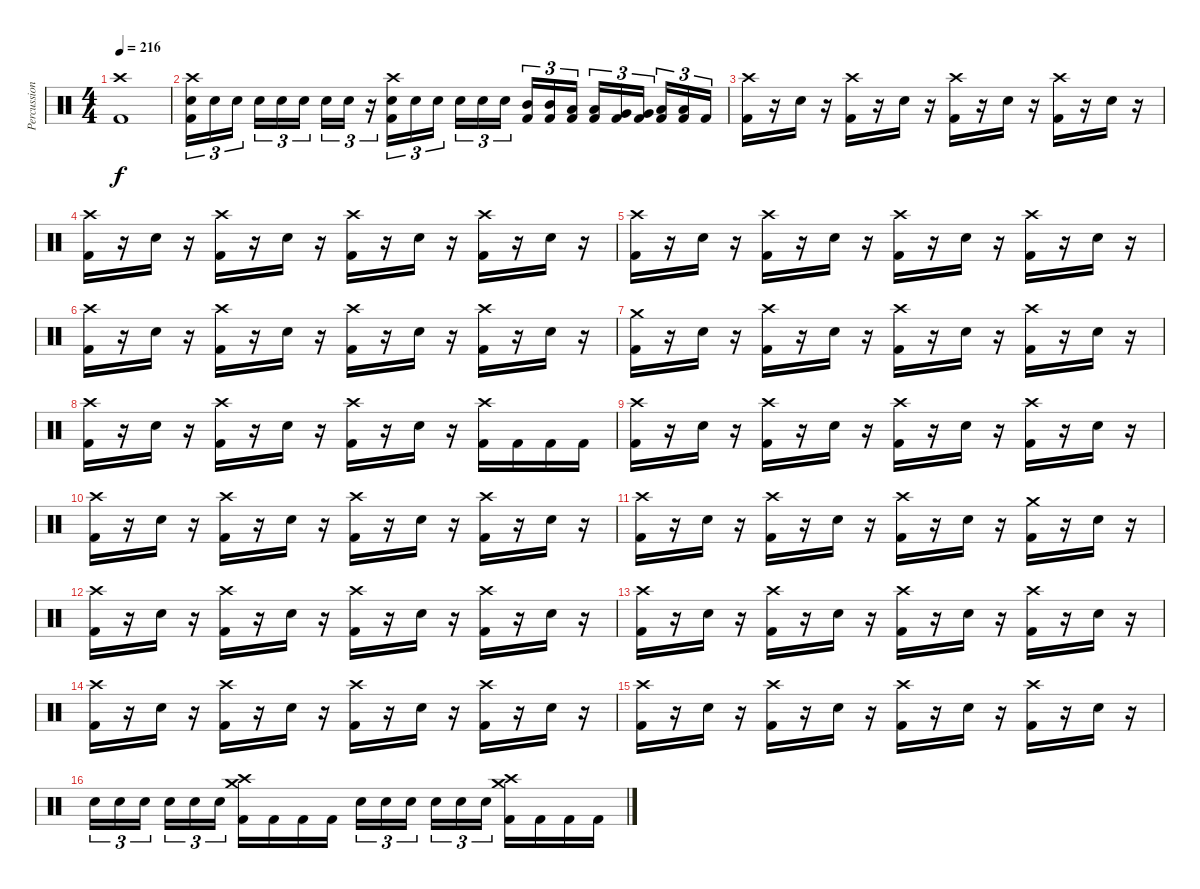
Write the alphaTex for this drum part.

\track ("Percussions" "Percussion") {instrument percussion}
\staff {score}
\articulation defaults
\ts (4 4)
\tempo 216
\clef neutral
\ks c
("Crash high (hit)" "Kick (hit) 2").1{dy f} |
("Crash high (hit)" "Electric Snare (hit)" "Kick (hit) 2").16{tu (3 2)} "Electric Snare (hit)".16{tu (3 2)} "Electric Snare (hit)".16{tu (3 2) beam splitsecondary} "Electric Snare (hit)".16{tu (3 2)} "Electric Snare (hit)".16{tu (3 2)} "Electric Snare (hit)".16{tu (3 2)} "Electric Snare (hit)".16{tu (3 2)} "Electric Snare (hit)".16{tu (3 2)} r.16{tu (3 2)} ("Crash high (hit)" "Electric Snare (hit)" "Kick (hit) 2").16{tu (3 2)} "Electric Snare (hit)".16{tu (3 2)} "Electric Snare (hit)".16{tu (3 2)} "Electric Snare (hit)".16{tu (3 2)} "Electric Snare (hit)".16{tu (3 2)} "Electric Snare (hit)".16{tu (3 2) beam splitsecondary} ("Mid Tom (hit)" "Kick (hit) 2").16{tu (3 2)} ("Mid Tom (hit)" "Kick (hit) 2").16{tu (3 2)} ("Low Tom (hit)" "Kick (hit) 2").16{tu (3 2)} ("Low Tom (hit)" "Kick (hit) 2").16{tu (3 2)} ("Very Low Tom (hit)" "Kick (hit) 2").16{tu (3 2)} ("Very Low Tom (hit)" "Kick (hit) 2").16{tu (3 2) beam splitsecondary} ("Low Floor Tom (hit)" "Kick (hit) 2").16{tu (3 2)} ("Low Floor Tom (hit)" "Kick (hit) 2").16{tu (3 2)} "Kick (hit) 2".16{tu (3 2)} |
("Crash high (hit)" "Kick (hit) 2").16 r.16 "Electric Snare (hit)".16 r.16 ("Crash high (hit)" "Kick (hit) 2").16 r.16 "Electric Snare (hit)".16 r.16 ("Crash high (hit)" "Kick (hit) 2").16 r.16 "Electric Snare (hit)".16 r.16 ("Crash high (hit)" "Kick (hit) 2").16 r.16 "Electric Snare (hit)".16 r.16 |
("Crash high (hit)" "Kick (hit) 2").16 r.16 "Electric Snare (hit)".16 r.16 ("Crash high (hit)" "Kick (hit) 2").16 r.16 "Electric Snare (hit)".16 r.16 ("Crash high (hit)" "Kick (hit) 2").16 r.16 "Electric Snare (hit)".16 r.16 ("Crash high (hit)" "Kick (hit) 2").16 r.16 "Electric Snare (hit)".16 r.16 |
("Crash high (hit)" "Kick (hit) 2").16 r.16 "Electric Snare (hit)".16 r.16 ("Crash high (hit)" "Kick (hit) 2").16 r.16 "Electric Snare (hit)".16 r.16 ("Crash high (hit)" "Kick (hit) 2").16 r.16 "Electric Snare (hit)".16 r.16 ("Crash high (hit)" "Kick (hit) 2").16 r.16 "Electric Snare (hit)".16 r.16 |
("Crash high (hit)" "Kick (hit) 2").16 r.16 "Electric Snare (hit)".16 r.16 ("Crash high (hit)" "Kick (hit) 2").16 r.16 "Electric Snare (hit)".16 r.16 ("Crash high (hit)" "Kick (hit) 2").16 r.16 "Electric Snare (hit)".16 r.16 ("Crash high (hit)" "Kick (hit) 2").16 r.16 "Electric Snare (hit)".16 r.16 |
("Crash medium (hit)" "Kick (hit) 2").16 r.16 "Electric Snare (hit)".16 r.16 ("Crash high (hit)" "Kick (hit) 2").16 r.16 "Electric Snare (hit)".16 r.16 ("Crash high (hit)" "Kick (hit) 2").16 r.16 "Electric Snare (hit)".16 r.16 ("Crash high (hit)" "Kick (hit) 2").16 r.16 "Electric Snare (hit)".16 r.16 |
("Crash high (hit)" "Kick (hit) 2").16 r.16 "Electric Snare (hit)".16 r.16 ("Crash high (hit)" "Kick (hit) 2").16 r.16 "Electric Snare (hit)".16 r.16 ("Crash high (hit)" "Kick (hit) 2").16 r.16 "Electric Snare (hit)".16 r.16 ("Crash high (hit)" "Kick (hit) 2").16 "Kick (hit) 2".16 "Kick (hit) 2".16 "Kick (hit) 2".16 |
("Crash high (hit)" "Kick (hit) 2").16 r.16 "Electric Snare (hit)".16 r.16 ("Crash high (hit)" "Kick (hit) 2").16 r.16 "Electric Snare (hit)".16 r.16 ("Crash high (hit)" "Kick (hit) 2").16 r.16 "Electric Snare (hit)".16 r.16 ("Crash high (hit)" "Kick (hit) 2").16 r.16 "Electric Snare (hit)".16 r.16 |
("Crash high (hit)" "Kick (hit) 2").16 r.16 "Electric Snare (hit)".16 r.16 ("Crash high (hit)" "Kick (hit) 2").16 r.16 "Electric Snare (hit)".16 r.16 ("Crash high (hit)" "Kick (hit) 2").16 r.16 "Electric Snare (hit)".16 r.16 ("Crash high (hit)" "Kick (hit) 2").16 r.16 "Electric Snare (hit)".16 r.16 |
("Crash high (hit)" "Kick (hit) 2").16 r.16 "Electric Snare (hit)".16 r.16 ("Crash high (hit)" "Kick (hit) 2").16 r.16 "Electric Snare (hit)".16 r.16 ("Crash high (hit)" "Kick (hit) 2").16 r.16 "Electric Snare (hit)".16 r.16 ("Crash medium (hit)" "Kick (hit) 2").16 r.16 "Electric Snare (hit)".16 r.16 |
("Crash high (hit)" "Kick (hit) 2").16 r.16 "Electric Snare (hit)".16 r.16 ("Crash high (hit)" "Kick (hit) 2").16 r.16 "Electric Snare (hit)".16 r.16 ("Crash high (hit)" "Kick (hit) 2").16 r.16 "Electric Snare (hit)".16 r.16 ("Crash high (hit)" "Kick (hit) 2").16 r.16 "Electric Snare (hit)".16 r.16 |
("Crash high (hit)" "Kick (hit) 2").16 r.16 "Electric Snare (hit)".16 r.16 ("Crash high (hit)" "Kick (hit) 2").16 r.16 "Electric Snare (hit)".16 r.16 ("Crash high (hit)" "Kick (hit) 2").16 r.16 "Electric Snare (hit)".16 r.16 ("Crash high (hit)" "Kick (hit) 2").16 r.16 "Electric Snare (hit)".16 r.16 |
("Crash high (hit)" "Kick (hit) 2").16 r.16 "Electric Snare (hit)".16 r.16 ("Crash high (hit)" "Kick (hit) 2").16 r.16 "Electric Snare (hit)".16 r.16 ("Crash high (hit)" "Kick (hit) 2").16 r.16 "Electric Snare (hit)".16 r.16 ("Crash high (hit)" "Kick (hit) 2").16 r.16 "Electric Snare (hit)".16 r.16 |
("Crash high (hit)" "Kick (hit) 2").16 r.16 "Electric Snare (hit)".16 r.16 ("Crash high (hit)" "Kick (hit) 2").16 r.16 "Electric Snare (hit)".16 r.16 ("Crash high (hit)" "Kick (hit) 2").16 r.16 "Electric Snare (hit)".16 r.16 ("Crash high (hit)" "Kick (hit) 2").16 r.16 "Electric Snare (hit)".16 r.16 |
"Electric Snare (hit)".16{tu (3 2)} "Electric Snare (hit)".16{tu (3 2)} "Electric Snare (hit)".16{tu (3 2) beam splitsecondary} "Electric Snare (hit)".16{tu (3 2)} "Electric Snare (hit)".16{tu (3 2)} "Electric Snare (hit)".16{tu (3 2)} ("Crash high (hit)" "Crash medium (hit)" "Kick (hit) 2").16 "Kick (hit) 2".16 "Kick (hit) 2".16 "Kick (hit) 2".16 "Electric Snare (hit)".16{tu (3 2)} "Electric Snare (hit)".16{tu (3 2)} "Electric Snare (hit)".16{tu (3 2) beam splitsecondary} "Electric Snare (hit)".16{tu (3 2)} "Electric Snare (hit)".16{tu (3 2)} "Electric Snare (hit)".16{tu (3 2)} ("Crash high (hit)" "Crash medium (hit)" "Kick (hit) 2").16 "Kick (hit) 2".16 "Kick (hit) 2".16 "Kick (hit) 2".16
